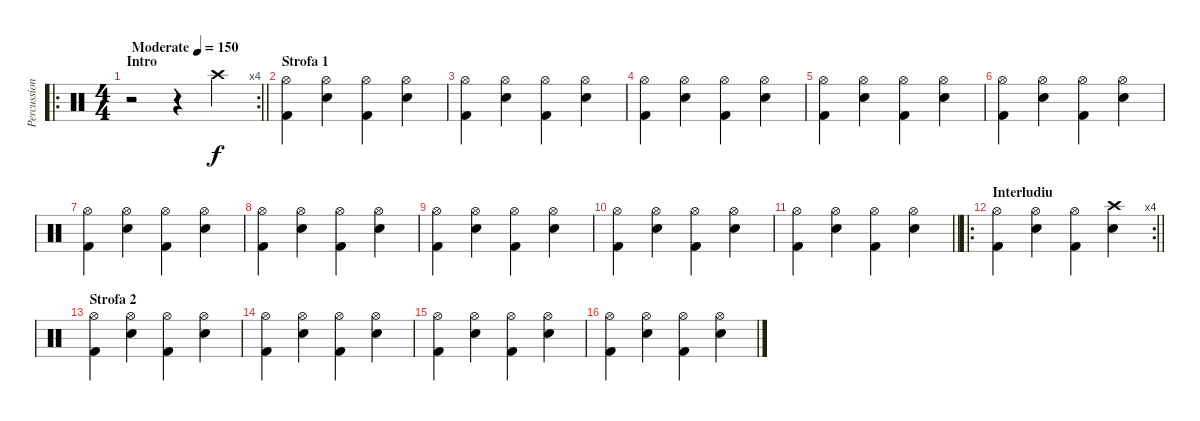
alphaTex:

\track ("Percussion" "Percussion") {instrument percussion}
\staff {score}
\articulation defaults
\ro
\rc 4
\ts (4 4)
\section ("" "Intro")
\tempo (150 "Moderate")
\clef neutral
\barLineRight lightlight
\ks c
r.2{dy f} r.4 "Crash high (hit)".4 |
\section ("" "Strofa 1")
("Hi-Hat (open)" "Kick (hit) 2").4 ("Hi-Hat (open)" "Snare (hit) 2").4 ("Hi-Hat (open)" "Kick (hit) 2").4 ("Hi-Hat (open)" "Snare (hit) 2").4 |
("Hi-Hat (open)" "Kick (hit) 2").4 ("Hi-Hat (open)" "Snare (hit) 2").4 ("Hi-Hat (open)" "Kick (hit) 2").4 ("Hi-Hat (open)" "Snare (hit) 2").4 |
("Hi-Hat (open)" "Kick (hit) 2").4 ("Hi-Hat (open)" "Snare (hit) 2").4 ("Hi-Hat (open)" "Kick (hit) 2").4 ("Hi-Hat (open)" "Snare (hit) 2").4 |
("Hi-Hat (open)" "Kick (hit) 2").4 ("Hi-Hat (open)" "Snare (hit) 2").4 ("Hi-Hat (open)" "Kick (hit) 2").4 ("Hi-Hat (open)" "Snare (hit) 2").4 |
("Hi-Hat (open)" "Kick (hit) 2").4 ("Hi-Hat (open)" "Snare (hit) 2").4 ("Hi-Hat (open)" "Kick (hit) 2").4 ("Hi-Hat (open)" "Snare (hit) 2").4 |
("Hi-Hat (open)" "Kick (hit) 2").4 ("Hi-Hat (open)" "Snare (hit) 2").4 ("Hi-Hat (open)" "Kick (hit) 2").4 ("Hi-Hat (open)" "Snare (hit) 2").4 |
("Hi-Hat (open)" "Kick (hit) 2").4 ("Hi-Hat (open)" "Snare (hit) 2").4 ("Hi-Hat (open)" "Kick (hit) 2").4 ("Hi-Hat (open)" "Snare (hit) 2").4 |
("Hi-Hat (open)" "Kick (hit) 2").4 ("Hi-Hat (open)" "Snare (hit) 2").4 ("Hi-Hat (open)" "Kick (hit) 2").4 ("Hi-Hat (open)" "Snare (hit) 2").4 |
("Hi-Hat (open)" "Kick (hit) 2").4 ("Hi-Hat (open)" "Snare (hit) 2").4 ("Hi-Hat (open)" "Kick (hit) 2").4 ("Hi-Hat (open)" "Snare (hit) 2").4 |
\barLineRight lightlight
("Hi-Hat (open)" "Kick (hit) 2").4 ("Hi-Hat (open)" "Snare (hit) 2").4 ("Hi-Hat (open)" "Kick (hit) 2").4 ("Hi-Hat (open)" "Snare (hit) 2").4 |
\ro
\rc 4
\section ("" "Interludiu")
\barLineRight lightlight
("Hi-Hat (open)" "Kick (hit) 2").4 ("Hi-Hat (open)" "Snare (hit) 2").4 ("Hi-Hat (open)" "Kick (hit) 2").4 ("Crash high (hit)" "Snare (hit) 2").4 |
\section ("" "Strofa 2")
("Hi-Hat (open)" "Kick (hit) 2").4 ("Hi-Hat (open)" "Snare (hit) 2").4 ("Hi-Hat (open)" "Kick (hit) 2").4 ("Hi-Hat (open)" "Snare (hit) 2").4 |
("Hi-Hat (open)" "Kick (hit) 2").4 ("Hi-Hat (open)" "Snare (hit) 2").4 ("Hi-Hat (open)" "Kick (hit) 2").4 ("Hi-Hat (open)" "Snare (hit) 2").4 |
("Hi-Hat (open)" "Kick (hit) 2").4 ("Hi-Hat (open)" "Snare (hit) 2").4 ("Hi-Hat (open)" "Kick (hit) 2").4 ("Hi-Hat (open)" "Snare (hit) 2").4 |
("Hi-Hat (open)" "Kick (hit) 2").4 ("Hi-Hat (open)" "Snare (hit) 2").4 ("Hi-Hat (open)" "Kick (hit) 2").4 ("Hi-Hat (open)" "Snare (hit) 2").4
